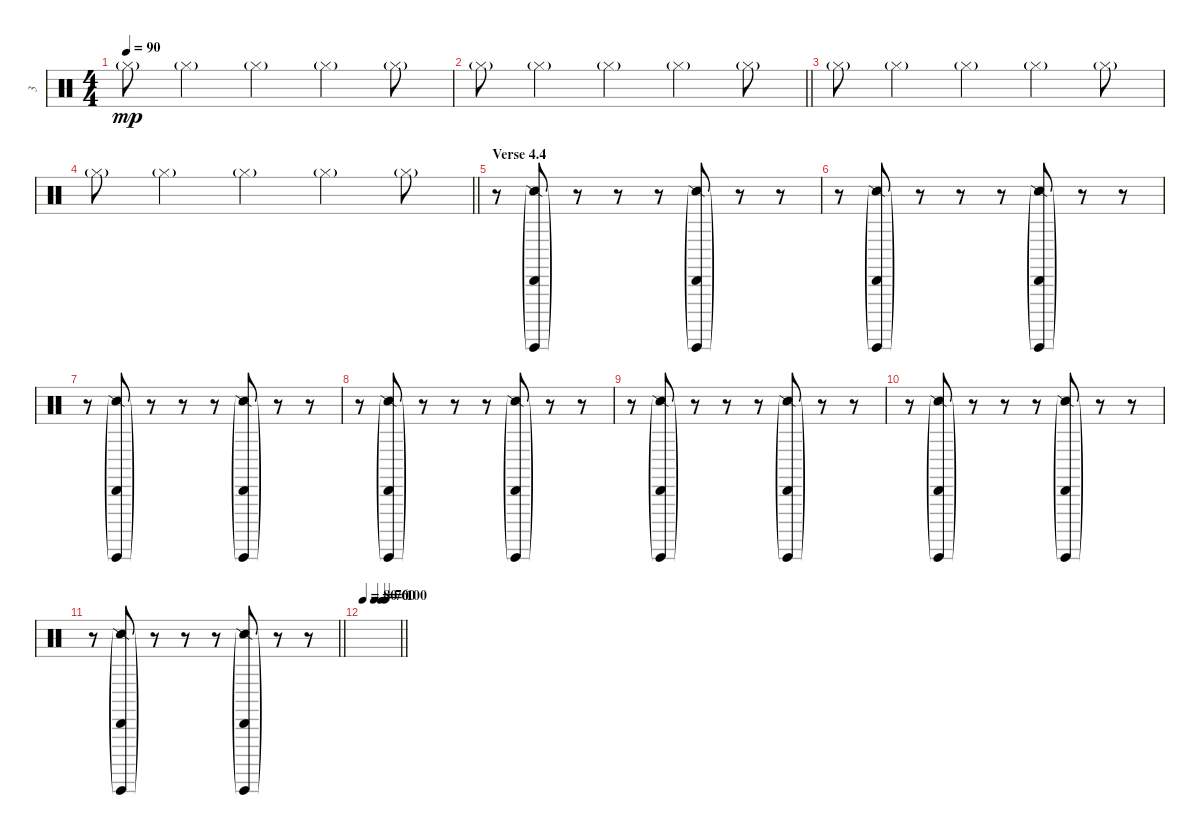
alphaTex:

\track ("3" "3") {instrument percussion}
\staff {score}
\articulation defaults
\ts (4 4)
\tempo 90
\clef neutral
\ks c "Hi-Hat (closed)"{g}.8{dy mp} "Hi-Hat (closed)"{g}.4 "Hi-Hat (closed)"{g}.4 "Hi-Hat (closed)"{g}.4 "Hi-Hat (closed)"{g}.8
|
\barLineRight lightlight "Hi-Hat (closed)"{g}.8 "Hi-Hat (closed)"{g}.4 "Hi-Hat (closed)"{g}.4 "Hi-Hat (closed)"{g}.4 "Hi-Hat (closed)"{g}.8
|
"Hi-Hat (closed)"{g}.8 "Hi-Hat (closed)"{g}.4 "Hi-Hat (closed)"{g}.4 "Hi-Hat (closed)"{g}.4 "Hi-Hat (closed)"{g}.8 |
\barLineRight lightlight "Hi-Hat (closed)"{g}.8 "Hi-Hat (closed)"{g}.4 "Hi-Hat (closed)"{g}.4 "Hi-Hat (closed)"{g}.4 "Hi-Hat (closed)"{g}.8
|
\section ("" "Verse 4.4")
r.8 ("Guiro (hit)"{g} "Cabasa (hit)"{g} "Snare (side stick) 2"{g}).8 r.8 r.8 r.8 ("Guiro (hit)"{g} "Cabasa (hit)"{g} "Snare (side stick) 2"{g}).8 r.8 r.8 |
r.8 ("Guiro (hit)"{g} "Cabasa (hit)"{g} "Snare (side stick) 2"{g}).8 r.8 r.8 r.8 ("Guiro (hit)"{g} "Cabasa (hit)"{g} "Snare (side stick) 2"{g}).8 r.8 r.8 |
r.8 ("Guiro (hit)"{g} "Cabasa (hit)"{g} "Snare (side stick) 2"{g}).8 r.8 r.8 r.8 ("Guiro (hit)"{g} "Cabasa (hit)"{g} "Snare (side stick) 2"{g}).8 r.8 r.8 |
r.8 ("Guiro (hit)"{g} "Cabasa (hit)"{g} "Snare (side stick) 2"{g}).8 r.8 r.8 r.8 ("Guiro (hit)"{g} "Cabasa (hit)"{g} "Snare (side stick) 2"{g}).8 r.8 r.8 |
r.8 ("Guiro (hit)"{g} "Cabasa (hit)"{g} "Snare (side stick) 2"{g}).8 r.8 r.8 r.8 ("Guiro (hit)"{g} "Cabasa (hit)"{g} "Snare (side stick) 2"{g}).8 r.8 r.8 |
r.8 ("Guiro (hit)"{g} "Cabasa (hit)"{g} "Snare (side stick) 2"{g}).8 r.8 r.8 r.8 ("Guiro (hit)"{g} "Cabasa (hit)"{g} "Snare (side stick) 2"{g}).8 r.8 r.8 |
\barLineRight lightlight
r.8 ("Guiro (hit)"{g} "Cabasa (hit)"{g} "Snare (side stick) 2"{g}).8 r.8 r.8 r.8 ("Guiro (hit)"{g} "Cabasa (hit)"{g} "Snare (side stick) 2"{g}).8 r.8 r.8 |
\tempo 80
\tempo (70 0.3125)
\tempo (60 0.5)
\tempo (100 0.625)
\barLineRight lightlight
